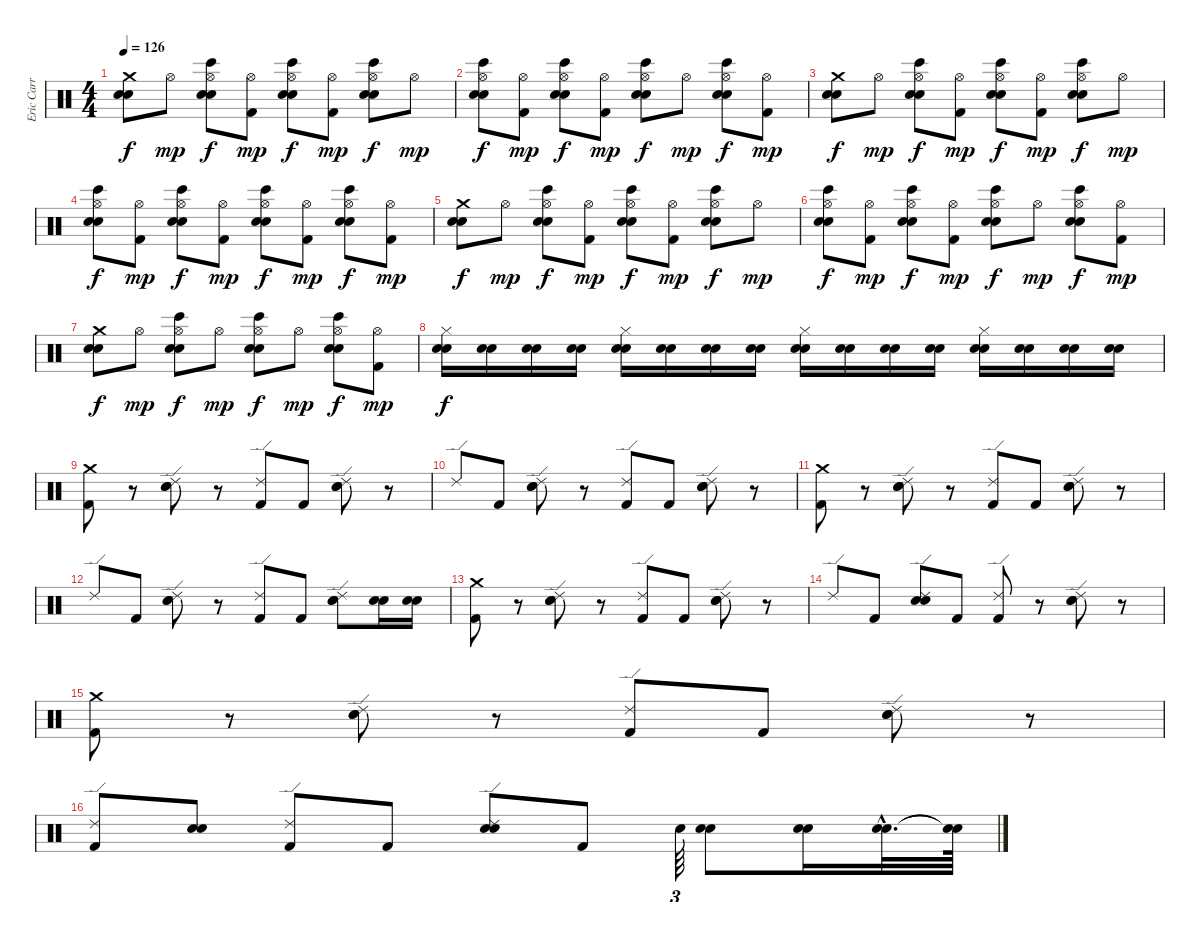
\track ("Eric Carr" "Eric Carr") {instrument percussion}
\staff {score}
\articulation defaults
\ts (4 4)
\tempo 126
\clef neutral
\ks c
("Crash medium (hit)" "Snare (hit) 2" "Electric Snare (hit)").8{dy f} "Hi-Hat (open)".8{dy mp} ("Hi-Hat (open)" "Bongo High (hit)" "Electric Snare (hit)" "Snare (hit) 2").8{dy f} ("Hi-Hat (open)" "Kick (hit) 2").8{dy mp} ("Hi-Hat (open)" "Bongo High (hit)" "Electric Snare (hit)" "Snare (hit) 2").8{dy f} ("Hi-Hat (open)" "Kick (hit) 2").8{dy mp} ("Hi-Hat (open)" "Bongo High (hit)" "Electric Snare (hit)" "Snare (hit) 2").8{dy f} "Hi-Hat (open)".8{dy mp} |
("Bongo High (hit)" "Hi-Hat (open)" "Electric Snare (hit)" "Snare (hit) 2").8{dy f} ("Hi-Hat (open)" "Kick (hit) 2").8{dy mp} ("Bongo High (hit)" "Hi-Hat (open)" "Electric Snare (hit)" "Snare (hit) 2").8{dy f} ("Hi-Hat (open)" "Kick (hit) 2").8{dy mp} ("Bongo High (hit)" "Hi-Hat (open)" "Electric Snare (hit)" "Snare (hit) 2").8{dy f} "Hi-Hat (open)".8{dy mp} ("Bongo High (hit)" "Hi-Hat (open)" "Electric Snare (hit)" "Snare (hit) 2").8{dy f} ("Kick (hit) 2" "Hi-Hat (open)").8{dy mp} |
("Crash medium (hit)" "Snare (hit) 2" "Electric Snare (hit)").8{dy f} "Hi-Hat (open)".8{dy mp} ("Hi-Hat (open)" "Bongo High (hit)" "Electric Snare (hit)" "Snare (hit) 2").8{dy f} ("Hi-Hat (open)" "Kick (hit) 2").8{dy mp} ("Hi-Hat (open)" "Bongo High (hit)" "Electric Snare (hit)" "Snare (hit) 2").8{dy f} ("Hi-Hat (open)" "Kick (hit) 2").8{dy mp} ("Hi-Hat (open)" "Bongo High (hit)" "Electric Snare (hit)" "Snare (hit) 2").8{dy f} "Hi-Hat (open)".8{dy mp} |
("Bongo High (hit)" "Hi-Hat (open)" "Electric Snare (hit)" "Snare (hit) 2").8{dy f} ("Hi-Hat (open)" "Kick (hit) 2").8{dy mp} ("Bongo High (hit)" "Hi-Hat (open)" "Electric Snare (hit)" "Snare (hit) 2").8{dy f} ("Hi-Hat (open)" "Kick (hit) 2").8{dy mp} ("Bongo High (hit)" "Hi-Hat (open)" "Electric Snare (hit)" "Snare (hit) 2").8{dy f} ("Kick (hit) 2" "Hi-Hat (open)").8{dy mp} ("Bongo High (hit)" "Hi-Hat (open)" "Electric Snare (hit)" "Snare (hit) 2").8{dy f} ("Kick (hit) 2" "Hi-Hat (open)").8{dy mp} |
("Crash medium (hit)" "Snare (hit) 2" "Electric Snare (hit)").8{dy f} "Hi-Hat (open)".8{dy mp} ("Hi-Hat (open)" "Bongo High (hit)" "Electric Snare (hit)" "Snare (hit) 2").8{dy f} ("Hi-Hat (open)" "Kick (hit) 2").8{dy mp} ("Hi-Hat (open)" "Bongo High (hit)" "Electric Snare (hit)" "Snare (hit) 2").8{dy f} ("Hi-Hat (open)" "Kick (hit) 2").8{dy mp} ("Hi-Hat (open)" "Bongo High (hit)" "Electric Snare (hit)" "Snare (hit) 2").8{dy f} "Hi-Hat (open)".8{dy mp} |
("Bongo High (hit)" "Hi-Hat (open)" "Electric Snare (hit)" "Snare (hit) 2").8{dy f} ("Hi-Hat (open)" "Kick (hit) 2").8{dy mp} ("Bongo High (hit)" "Hi-Hat (open)" "Electric Snare (hit)" "Snare (hit) 2").8{dy f} ("Hi-Hat (open)" "Kick (hit) 2").8{dy mp} ("Bongo High (hit)" "Hi-Hat (open)" "Electric Snare (hit)" "Snare (hit) 2").8{dy f} "Hi-Hat (open)".8{dy mp} ("Bongo High (hit)" "Hi-Hat (open)" "Electric Snare (hit)" "Snare (hit) 2").8{dy f} ("Kick (hit) 2" "Hi-Hat (open)").8{dy mp} |
("Crash medium (hit)" "Snare (hit) 2" "Electric Snare (hit)").8{dy f} "Hi-Hat (open)".8{dy mp} ("Hi-Hat (open)" "Bongo High (hit)" "Electric Snare (hit)" "Snare (hit) 2").8{dy f} "Hi-Hat (open)".8{dy mp} ("Hi-Hat (open)" "Bongo High (hit)" "Electric Snare (hit)" "Snare (hit) 2").8{dy f} "Hi-Hat (open)".8{dy mp} ("Hi-Hat (open)" "Bongo High (hit)" "Electric Snare (hit)" "Snare (hit) 2").8{dy f} ("Kick (hit) 2" "Hi-Hat (open)").8{dy mp} |
("Hi-Hat (closed)" "Snare (hit) 2" "Electric Snare (hit)").16{dy f} ("Snare (hit) 2" "Electric Snare (hit)").16 ("Snare (hit) 2" "Electric Snare (hit)").16 ("Snare (hit) 2" "Electric Snare (hit)").16 ("Hi-Hat (closed)" "Snare (hit) 2" "Electric Snare (hit)").16 ("Electric Snare (hit)" "Snare (hit) 2").16 ("Electric Snare (hit)" "Snare (hit) 2").16 ("Electric Snare (hit)" "Snare (hit) 2").16 ("Hi-Hat (closed)" "Electric Snare (hit)" "Snare (hit) 2").16 ("Electric Snare (hit)" "Snare (hit) 2").16 ("Electric Snare (hit)" "Snare (hit) 2").16 ("Electric Snare (hit)" "Snare (hit) 2").16 ("Hi-Hat (closed)" "Electric Snare (hit)" "Snare (hit) 2").16 ("Electric Snare (hit)" "Snare (hit) 2").16 ("Electric Snare (hit)" "Snare (hit) 2").16 ("Electric Snare (hit)" "Snare (hit) 2").16 |
("Crash medium (hit)" "Kick (hit) 2").8 r.8 ("Ride (edge) 2" "Snare (hit) 2" "Electric Snare (hit)").8 r.8 ("Ride (edge) 2" "Kick (hit) 2").8 "Kick (hit) 2".8 ("Ride (edge) 2" "Snare (hit) 2" "Electric Snare (hit)").8 r.8 |
"Ride (edge) 2".8 "Kick (hit) 2".8 ("Ride (edge) 2" "Snare (hit) 2" "Electric Snare (hit)").8 r.8 ("Ride (edge) 2" "Kick (hit) 2").8 "Kick (hit) 2".8 ("Ride (edge) 2" "Electric Snare (hit)" "Snare (hit) 2").8 r.8 |
("Crash medium (hit)" "Kick (hit) 2").8 r.8 ("Ride (edge) 2" "Snare (hit) 2" "Electric Snare (hit)").8 r.8 ("Ride (edge) 2" "Kick (hit) 2").8 "Kick (hit) 2".8 ("Ride (edge) 2" "Snare (hit) 2" "Electric Snare (hit)").8 r.8 |
"Ride (edge) 2".8 "Kick (hit) 2".8 ("Ride (edge) 2" "Snare (hit) 2" "Electric Snare (hit)").8 r.8 ("Ride (edge) 2" "Kick (hit) 2").8 "Kick (hit) 2".8 ("Ride (edge) 2" "Electric Snare (hit)" "Snare (hit) 2").8 ("Electric Snare (hit)" "Snare (hit) 2").16 ("Electric Snare (hit)" "Snare (hit) 2").16 |
("Crash medium (hit)" "Kick (hit) 2").8 r.8 ("Ride (edge) 2" "Snare (hit) 2" "Electric Snare (hit)").8 r.8 ("Ride (edge) 2" "Kick (hit) 2").8 "Kick (hit) 2".8 ("Ride (edge) 2" "Snare (hit) 2" "Electric Snare (hit)").8 r.8 |
"Ride (edge) 2".8 "Kick (hit) 2".8 ("Ride (edge) 2" "Snare (hit) 2" "Electric Snare (hit)").8 "Kick (hit) 2".8 ("Ride (edge) 2" "Kick (hit) 2").8 r.8 ("Ride (edge) 2" "Electric Snare (hit)" "Snare (hit) 2").8 r.8 |
("Crash medium (hit)" "Kick (hit) 2").8 r.8 ("Ride (edge) 2" "Snare (hit) 2" "Electric Snare (hit)").8 r.8 ("Ride (edge) 2" "Kick (hit) 2").8 "Kick (hit) 2".8 ("Ride (edge) 2" "Snare (hit) 2" "Electric Snare (hit)").8 r.8 |
("Kick (hit) 2" "Ride (edge) 2").8 ("Electric Snare (hit)" "Snare (hit) 2").8 ("Ride (edge) 2" "Kick (hit) 2").8 "Kick (hit) 2".8 ("Electric Snare (hit)" "Ride (edge) 2" "Snare (hit) 2").8 "Kick (hit) 2".8 "Snare (hit) 2".64{tu (3 2)} ("Electric Snare (hit)" "Snare (hit) 2").8 ("Electric Snare (hit)" "Snare (hit) 2").16 ("Electric Snare (hit)"{hac} "Snare (hit) 2"{hac}).32{d} ("Snare (hit)"{t} "Snare (hit)"{t}).64
